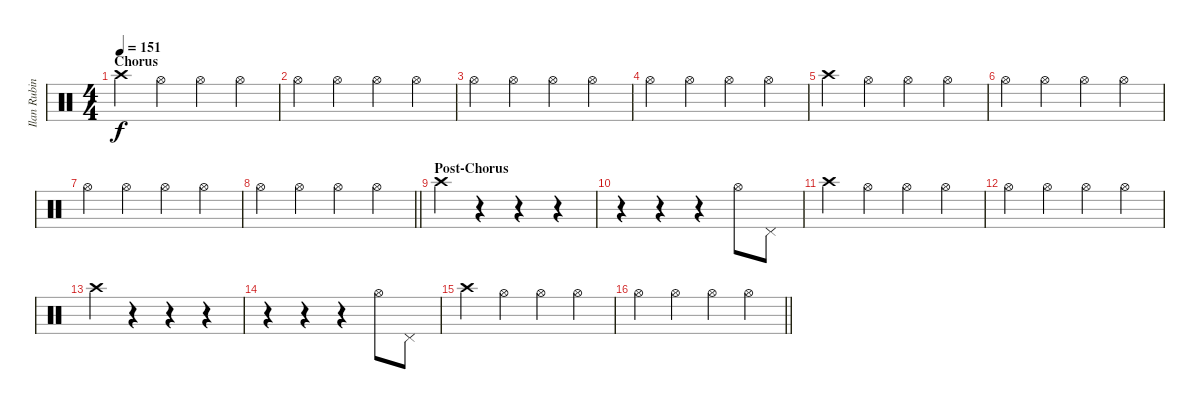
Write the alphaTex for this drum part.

\track ("Ilan Rubin [Drums]" "Ilan Rubin") {instrument percussion}
\staff {score}
\articulation defaults
\ts (4 4)
\section ("" "Chorus")
\tempo 151
\clef neutral
\ks c "Crash high (hit)".4{dy f} "Hi-Hat (open)".4 "Hi-Hat (open)".4 "Hi-Hat (open)".4
|
"Hi-Hat (open)".4 "Hi-Hat (open)".4 "Hi-Hat (open)".4 "Hi-Hat (open)".4 |
"Hi-Hat (open)".4 "Hi-Hat (open)".4 "Hi-Hat (open)".4 "Hi-Hat (open)".4 |
"Hi-Hat (open)".4 "Hi-Hat (open)".4 "Hi-Hat (open)".4 "Hi-Hat (open)".4 |
"Crash high (hit)".4 "Hi-Hat (open)".4 "Hi-Hat (open)".4 "Hi-Hat (open)".4 |
"Hi-Hat (open)".4 "Hi-Hat (open)".4 "Hi-Hat (open)".4 "Hi-Hat (open)".4 |
"Hi-Hat (open)".4 "Hi-Hat (open)".4 "Hi-Hat (open)".4 "Hi-Hat (open)".4 |
\barLineRight lightlight "Hi-Hat (open)".4 "Hi-Hat (open)".4 "Hi-Hat (open)".4 "Hi-Hat (open)".4
|
\section ("" "Post-Chorus")
"Crash high (hit)".4 r.4 r.4 r.4 |
r.4 r.4 r.4 "Hi-Hat (open)".8 "Pedal Hi-Hat (hit)".8 |
"Crash high (hit)".4 "Hi-Hat (open)".4 "Hi-Hat (open)".4 "Hi-Hat (open)".4 |
"Hi-Hat (open)".4 "Hi-Hat (open)".4 "Hi-Hat (open)".4 "Hi-Hat (open)".4 |
"Crash high (hit)".4 r.4 r.4 r.4 |
r.4 r.4 r.4 "Hi-Hat (open)".8 "Pedal Hi-Hat (hit)".8 |
"Crash high (hit)".4 "Hi-Hat (open)".4 "Hi-Hat (open)".4 "Hi-Hat (open)".4 |
\barLineRight lightlight "Hi-Hat (open)".4 "Hi-Hat (open)".4 "Hi-Hat (open)".4 "Hi-Hat (open)".4
